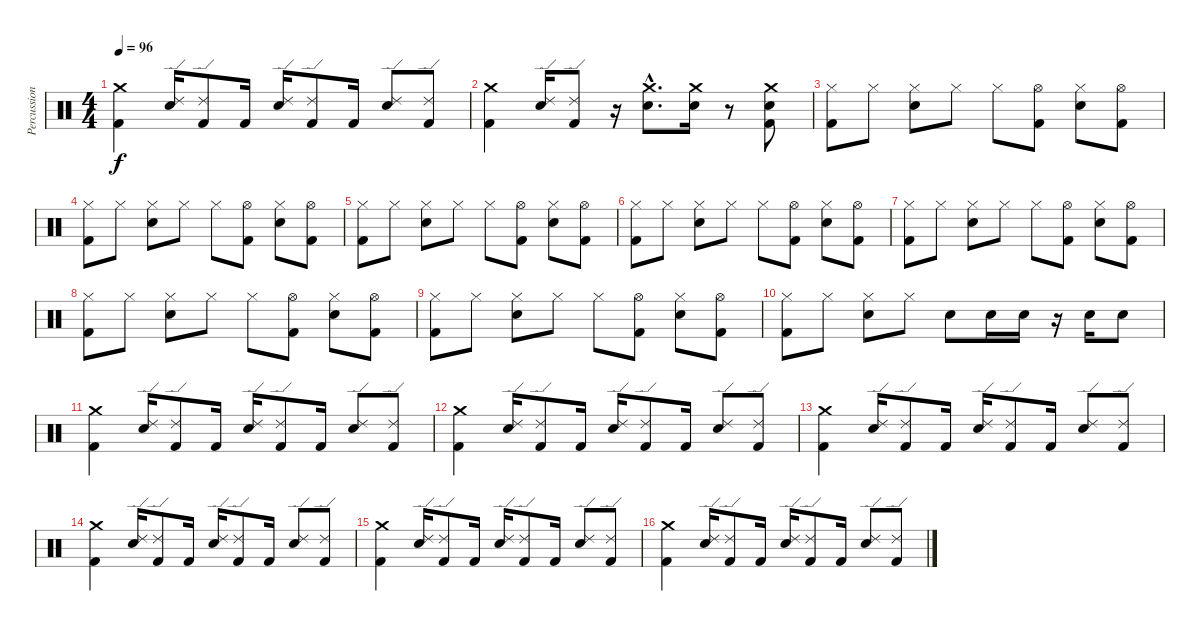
\track ("Percussion" "Percussion") {instrument percussion}
\staff {score}
\articulation defaults
\ts (4 4)
\tempo 96
\clef neutral
\ks c
("Crash medium (hit)" "Kick (hit) 2").4{dy f} ("Ride (edge) 2" "Snare (hit) 2").16 ("Ride (edge) 2" "Kick (hit) 2").8 "Kick (hit) 2".16 ("Ride (edge) 2" "Snare (hit) 2").16 ("Ride (edge) 2" "Kick (hit) 2").8 "Kick (hit) 2".16 ("Ride (edge) 2" "Snare (hit) 2").8 ("Ride (edge) 2" "Kick (hit) 2").8 |
("Crash medium (hit)" "Kick (hit) 2").4 ("Ride (edge) 2" "Snare (hit) 2").16 ("Ride (edge) 2" "Kick (hit) 2").8 r.16 ("Crash medium (hit)"{hac} "Snare (hit) 2"{hac}).8{d} ("Crash medium (hit)" "Snare (hit) 2").16 r.8 ("Crash medium (hit)" "Snare (hit) 2" "Kick (hit) 2").8 |
("Hi-Hat (closed)" "Kick (hit) 2").8 "Hi-Hat (closed)".8 ("Hi-Hat (closed)" "Snare (hit) 2").8 "Hi-Hat (closed)".8 "Hi-Hat (closed)".8 ("Hi-Hat (open)" "Kick (hit) 2").8 ("Hi-Hat (closed)" "Snare (hit) 2").8 ("Hi-Hat (open)" "Kick (hit) 2").8 |
("Hi-Hat (closed)" "Kick (hit) 2").8 "Hi-Hat (closed)".8 ("Hi-Hat (closed)" "Snare (hit) 2").8 "Hi-Hat (closed)".8 "Hi-Hat (closed)".8 ("Hi-Hat (open)" "Kick (hit) 2").8 ("Hi-Hat (closed)" "Snare (hit) 2").8 ("Hi-Hat (open)" "Kick (hit) 2").8 |
("Hi-Hat (closed)" "Kick (hit) 2").8 "Hi-Hat (closed)".8 ("Hi-Hat (closed)" "Snare (hit) 2").8 "Hi-Hat (closed)".8 "Hi-Hat (closed)".8 ("Hi-Hat (open)" "Kick (hit) 2").8 ("Hi-Hat (closed)" "Snare (hit) 2").8 ("Hi-Hat (open)" "Kick (hit) 2").8 |
("Hi-Hat (closed)" "Kick (hit) 2").8 "Hi-Hat (closed)".8 ("Hi-Hat (closed)" "Snare (hit) 2").8 "Hi-Hat (closed)".8 "Hi-Hat (closed)".8 ("Hi-Hat (open)" "Kick (hit) 2").8 ("Hi-Hat (closed)" "Snare (hit) 2").8 ("Hi-Hat (open)" "Kick (hit) 2").8 |
("Hi-Hat (closed)" "Kick (hit) 2").8 "Hi-Hat (closed)".8 ("Hi-Hat (closed)" "Snare (hit) 2").8 "Hi-Hat (closed)".8 "Hi-Hat (closed)".8 ("Hi-Hat (open)" "Kick (hit) 2").8 ("Hi-Hat (closed)" "Snare (hit) 2").8 ("Hi-Hat (open)" "Kick (hit) 2").8 |
("Hi-Hat (closed)" "Kick (hit) 2").8 "Hi-Hat (closed)".8 ("Hi-Hat (closed)" "Snare (hit) 2").8 "Hi-Hat (closed)".8 "Hi-Hat (closed)".8 ("Hi-Hat (open)" "Kick (hit) 2").8 ("Hi-Hat (closed)" "Snare (hit) 2").8 ("Hi-Hat (open)" "Kick (hit) 2").8 |
("Hi-Hat (closed)" "Kick (hit) 2").8 "Hi-Hat (closed)".8 ("Hi-Hat (closed)" "Snare (hit) 2").8 "Hi-Hat (closed)".8 "Hi-Hat (closed)".8 ("Hi-Hat (open)" "Kick (hit) 2").8 ("Hi-Hat (closed)" "Snare (hit) 2").8 ("Hi-Hat (open)" "Kick (hit) 2").8 |
("Hi-Hat (closed)" "Kick (hit) 2").8 "Hi-Hat (closed)".8 ("Hi-Hat (closed)" "Snare (hit) 2").8 "Hi-Hat (closed)".8 "Snare (hit) 2".8 "Snare (hit) 2".16 "Snare (hit) 2".16 r.16 "Snare (hit) 2".16 "Snare (hit) 2".8 |
("Crash medium (hit)" "Kick (hit) 2").4 ("Ride (edge) 2" "Snare (hit) 2").16 ("Ride (edge) 2" "Kick (hit) 2").8 "Kick (hit) 2".16 ("Ride (edge) 2" "Snare (hit) 2").16 ("Ride (edge) 2" "Kick (hit) 2").8 "Kick (hit) 2".16 ("Ride (edge) 2" "Snare (hit) 2").8 ("Ride (edge) 2" "Kick (hit) 2").8 |
("Crash medium (hit)" "Kick (hit) 2").4 ("Ride (edge) 2" "Snare (hit) 2").16 ("Ride (edge) 2" "Kick (hit) 2").8 "Kick (hit) 2".16 ("Ride (edge) 2" "Snare (hit) 2").16 ("Ride (edge) 2" "Kick (hit) 2").8 "Kick (hit) 2".16 ("Ride (edge) 2" "Snare (hit) 2").8 ("Ride (edge) 2" "Kick (hit) 2").8 |
("Crash medium (hit)" "Kick (hit) 2").4 ("Ride (edge) 2" "Snare (hit) 2").16 ("Ride (edge) 2" "Kick (hit) 2").8 "Kick (hit) 2".16 ("Ride (edge) 2" "Snare (hit) 2").16 ("Ride (edge) 2" "Kick (hit) 2").8 "Kick (hit) 2".16 ("Ride (edge) 2" "Snare (hit) 2").8 ("Ride (edge) 2" "Kick (hit) 2").8 |
("Crash medium (hit)" "Kick (hit) 2").4 ("Ride (edge) 2" "Snare (hit) 2").16 ("Ride (edge) 2" "Kick (hit) 2").8 "Kick (hit) 2".16 ("Ride (edge) 2" "Snare (hit) 2").16 ("Ride (edge) 2" "Kick (hit) 2").8 "Kick (hit) 2".16 ("Ride (edge) 2" "Snare (hit) 2").8 ("Ride (edge) 2" "Kick (hit) 2").8 |
("Crash medium (hit)" "Kick (hit) 2").4 ("Ride (edge) 2" "Snare (hit) 2").16 ("Ride (edge) 2" "Kick (hit) 2").8 "Kick (hit) 2".16 ("Ride (edge) 2" "Snare (hit) 2").16 ("Ride (edge) 2" "Kick (hit) 2").8 "Kick (hit) 2".16 ("Ride (edge) 2" "Snare (hit) 2").8 ("Ride (edge) 2" "Kick (hit) 2").8 |
("Crash medium (hit)" "Kick (hit) 2").4 ("Ride (edge) 2" "Snare (hit) 2").16 ("Ride (edge) 2" "Kick (hit) 2").8 "Kick (hit) 2".16 ("Ride (edge) 2" "Snare (hit) 2").16 ("Ride (edge) 2" "Kick (hit) 2").8 "Kick (hit) 2".16 ("Ride (edge) 2" "Snare (hit) 2").8 ("Ride (edge) 2" "Kick (hit) 2").8
